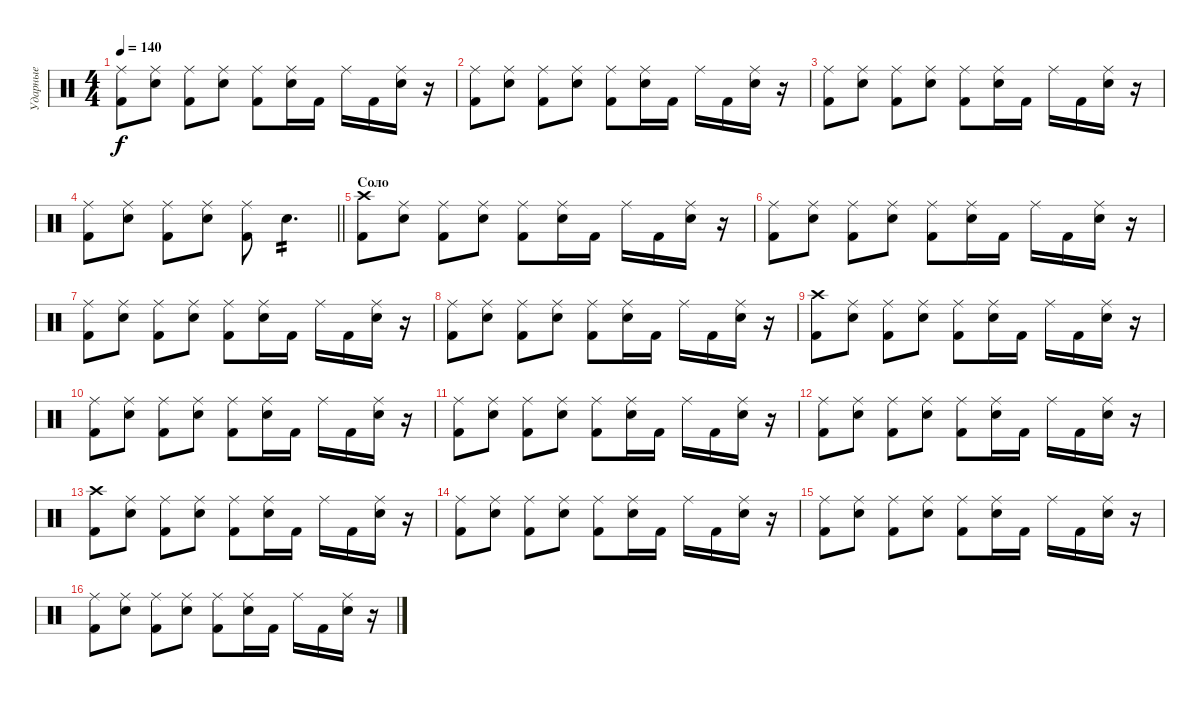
\track ("Ударные" "Ударные") {instrument percussion}
\staff {score}
\articulation defaults
\ts (4 4)
\tempo 140
\clef neutral
\ks c
("Ride (middle)" "Kick (hit) 2").8{dy f} ("Ride (middle)" "Electric Snare (hit)").8 ("Ride (middle)" "Kick (hit) 2").8 ("Ride (middle)" "Electric Snare (hit)").8 ("Ride (middle)" "Kick (hit) 2").8 ("Ride (middle)" "Electric Snare (hit)").16 "Kick (hit) 2".16 "Ride (middle)".16 "Kick (hit) 2".16 ("Ride (middle)" "Electric Snare (hit)").16 r.16 |
("Ride (middle)" "Kick (hit) 2").8 ("Ride (middle)" "Electric Snare (hit)").8 ("Ride (middle)" "Kick (hit) 2").8 ("Ride (middle)" "Electric Snare (hit)").8 ("Ride (middle)" "Kick (hit) 2").8 ("Ride (middle)" "Electric Snare (hit)").16 "Kick (hit) 2".16 "Ride (middle)".16 "Kick (hit) 2".16 ("Ride (middle)" "Electric Snare (hit)").16 r.16 |
("Ride (middle)" "Kick (hit) 2").8 ("Ride (middle)" "Electric Snare (hit)").8 ("Ride (middle)" "Kick (hit) 2").8 ("Ride (middle)" "Electric Snare (hit)").8 ("Ride (middle)" "Kick (hit) 2").8 ("Ride (middle)" "Electric Snare (hit)").16 "Kick (hit) 2".16 "Ride (middle)".16 "Kick (hit) 2".16 ("Ride (middle)" "Electric Snare (hit)").16 r.16 |
\barLineRight lightlight
("Ride (middle)" "Kick (hit) 2").8 ("Ride (middle)" "Electric Snare (hit)").8 ("Ride (middle)" "Kick (hit) 2").8 ("Ride (middle)" "Electric Snare (hit)").8 ("Ride (middle)" "Kick (hit) 2").8 "Electric Snare (hit)".4{d tp 2} |
\section ("" "Соло")
("Crash high (hit)" "Kick (hit) 2").8 ("Ride (middle)" "Electric Snare (hit)").8 ("Ride (middle)" "Kick (hit) 2").8 ("Ride (middle)" "Electric Snare (hit)").8 ("Ride (middle)" "Kick (hit) 2").8 ("Ride (middle)" "Electric Snare (hit)").16 "Kick (hit) 2".16 "Ride (middle)".16 "Kick (hit) 2".16 ("Ride (middle)" "Electric Snare (hit)").16 r.16 |
("Ride (middle)" "Kick (hit) 2").8 ("Ride (middle)" "Electric Snare (hit)").8 ("Ride (middle)" "Kick (hit) 2").8 ("Ride (middle)" "Electric Snare (hit)").8 ("Ride (middle)" "Kick (hit) 2").8 ("Ride (middle)" "Electric Snare (hit)").16 "Kick (hit) 2".16 "Ride (middle)".16 "Kick (hit) 2".16 ("Ride (middle)" "Electric Snare (hit)").16 r.16 |
("Ride (middle)" "Kick (hit) 2").8 ("Ride (middle)" "Electric Snare (hit)").8 ("Ride (middle)" "Kick (hit) 2").8 ("Ride (middle)" "Electric Snare (hit)").8 ("Ride (middle)" "Kick (hit) 2").8 ("Ride (middle)" "Electric Snare (hit)").16 "Kick (hit) 2".16 "Ride (middle)".16 "Kick (hit) 2".16 ("Ride (middle)" "Electric Snare (hit)").16 r.16 |
("Ride (middle)" "Kick (hit) 2").8 ("Ride (middle)" "Electric Snare (hit)").8 ("Ride (middle)" "Kick (hit) 2").8 ("Ride (middle)" "Electric Snare (hit)").8 ("Ride (middle)" "Kick (hit) 2").8 ("Ride (middle)" "Electric Snare (hit)").16 "Kick (hit) 2".16 "Ride (middle)".16 "Kick (hit) 2".16 ("Ride (middle)" "Electric Snare (hit)").16 r.16 |
("Crash high (hit)" "Kick (hit) 2").8 ("Ride (middle)" "Electric Snare (hit)").8 ("Ride (middle)" "Kick (hit) 2").8 ("Ride (middle)" "Electric Snare (hit)").8 ("Ride (middle)" "Kick (hit) 2").8 ("Ride (middle)" "Electric Snare (hit)").16 "Kick (hit) 2".16 "Ride (middle)".16 "Kick (hit) 2".16 ("Ride (middle)" "Electric Snare (hit)").16 r.16 |
("Ride (middle)" "Kick (hit) 2").8 ("Ride (middle)" "Electric Snare (hit)").8 ("Ride (middle)" "Kick (hit) 2").8 ("Ride (middle)" "Electric Snare (hit)").8 ("Ride (middle)" "Kick (hit) 2").8 ("Ride (middle)" "Electric Snare (hit)").16 "Kick (hit) 2".16 "Ride (middle)".16 "Kick (hit) 2".16 ("Ride (middle)" "Electric Snare (hit)").16 r.16 |
("Ride (middle)" "Kick (hit) 2").8 ("Ride (middle)" "Electric Snare (hit)").8 ("Ride (middle)" "Kick (hit) 2").8 ("Ride (middle)" "Electric Snare (hit)").8 ("Ride (middle)" "Kick (hit) 2").8 ("Ride (middle)" "Electric Snare (hit)").16 "Kick (hit) 2".16 "Ride (middle)".16 "Kick (hit) 2".16 ("Ride (middle)" "Electric Snare (hit)").16 r.16 |
("Ride (middle)" "Kick (hit) 2").8 ("Ride (middle)" "Electric Snare (hit)").8 ("Ride (middle)" "Kick (hit) 2").8 ("Ride (middle)" "Electric Snare (hit)").8 ("Ride (middle)" "Kick (hit) 2").8 ("Ride (middle)" "Electric Snare (hit)").16 "Kick (hit) 2".16 "Ride (middle)".16 "Kick (hit) 2".16 ("Ride (middle)" "Electric Snare (hit)").16 r.16 |
("Crash high (hit)" "Kick (hit) 2").8 ("Ride (middle)" "Electric Snare (hit)").8 ("Ride (middle)" "Kick (hit) 2").8 ("Ride (middle)" "Electric Snare (hit)").8 ("Ride (middle)" "Kick (hit) 2").8 ("Ride (middle)" "Electric Snare (hit)").16 "Kick (hit) 2".16 "Ride (middle)".16 "Kick (hit) 2".16 ("Ride (middle)" "Electric Snare (hit)").16 r.16 |
("Ride (middle)" "Kick (hit) 2").8 ("Ride (middle)" "Electric Snare (hit)").8 ("Ride (middle)" "Kick (hit) 2").8 ("Ride (middle)" "Electric Snare (hit)").8 ("Ride (middle)" "Kick (hit) 2").8 ("Ride (middle)" "Electric Snare (hit)").16 "Kick (hit) 2".16 "Ride (middle)".16 "Kick (hit) 2".16 ("Ride (middle)" "Electric Snare (hit)").16 r.16 |
("Ride (middle)" "Kick (hit) 2").8 ("Ride (middle)" "Electric Snare (hit)").8 ("Ride (middle)" "Kick (hit) 2").8 ("Ride (middle)" "Electric Snare (hit)").8 ("Ride (middle)" "Kick (hit) 2").8 ("Ride (middle)" "Electric Snare (hit)").16 "Kick (hit) 2".16 "Ride (middle)".16 "Kick (hit) 2".16 ("Ride (middle)" "Electric Snare (hit)").16 r.16 |
("Ride (middle)" "Kick (hit) 2").8 ("Ride (middle)" "Electric Snare (hit)").8 ("Ride (middle)" "Kick (hit) 2").8 ("Ride (middle)" "Electric Snare (hit)").8 ("Ride (middle)" "Kick (hit) 2").8 ("Ride (middle)" "Electric Snare (hit)").16 "Kick (hit) 2".16 "Ride (middle)".16 "Kick (hit) 2".16 ("Ride (middle)" "Electric Snare (hit)").16 r.16
